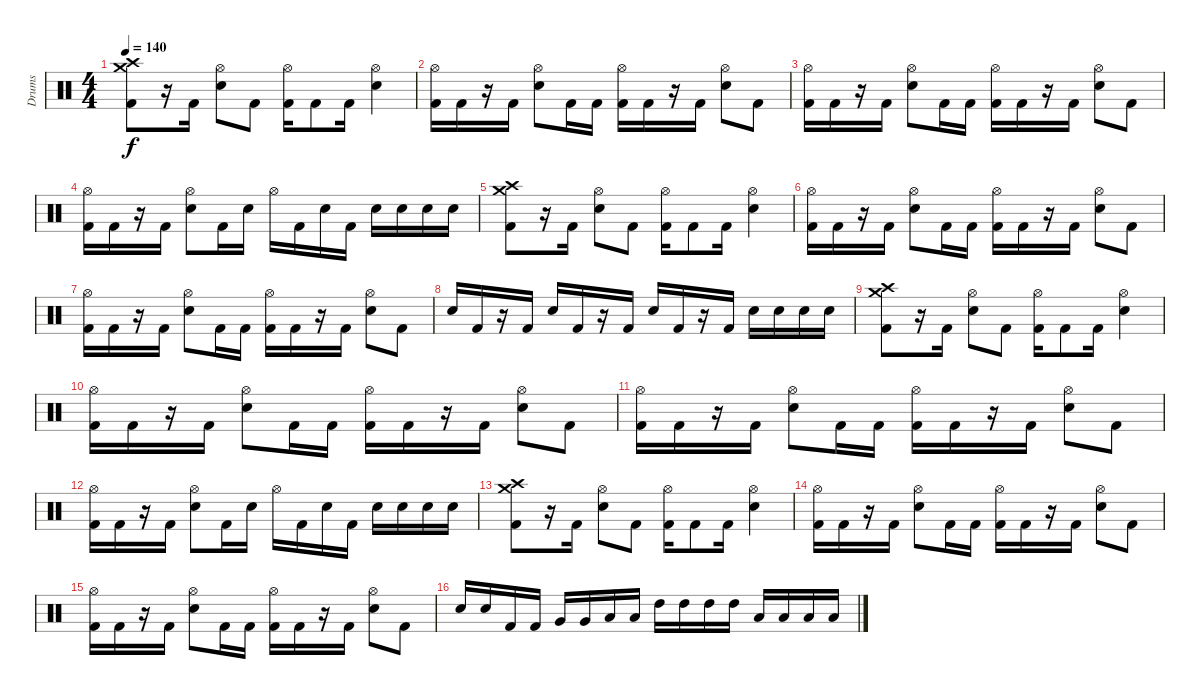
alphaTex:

\track ("Drums" "Drums") {instrument percussion}
\staff {score}
\articulation defaults
\ts (4 4)
\tempo 140
\clef neutral
\ks c
("Crash medium (hit)" "Crash high (hit)" "Kick (hit) 2").8{dy f} r.16 "Kick (hit) 2".16 ("Hi-Hat (open)" "Snare (hit) 2").8 "Kick (hit) 2".8 ("Hi-Hat (open)" "Kick (hit) 2").16 "Kick (hit) 2".8 "Kick (hit) 2".16 ("Hi-Hat (open)" "Snare (hit) 2").4 |
("Hi-Hat (open)" "Kick (hit) 2").16 "Kick (hit) 2".16 r.16 "Kick (hit) 2".16 ("Hi-Hat (open)" "Snare (hit) 2").8 "Kick (hit) 2".16 "Kick (hit) 2".16 ("Hi-Hat (open)" "Kick (hit) 2").16 "Kick (hit) 2".16 r.16 "Kick (hit) 2".16 ("Hi-Hat (open)" "Snare (hit) 2").8 "Kick (hit) 2".8 |
("Hi-Hat (open)" "Kick (hit) 2").16 "Kick (hit) 2".16 r.16 "Kick (hit) 2".16 ("Hi-Hat (open)" "Snare (hit) 2").8 "Kick (hit) 2".16 "Kick (hit) 2".16 ("Hi-Hat (open)" "Kick (hit) 2").16 "Kick (hit) 2".16 r.16 "Kick (hit) 2".16 ("Hi-Hat (open)" "Snare (hit) 2").8 "Kick (hit) 2".8 |
("Hi-Hat (open)" "Kick (hit) 2").16 "Kick (hit) 2".16 r.16 "Kick (hit) 2".16 ("Hi-Hat (open)" "Snare (hit) 2").8 "Kick (hit) 2".16 "Snare (hit) 2".16 "Hi-Hat (open)".16 "Kick (hit) 2".16 "Snare (hit) 2".16 "Kick (hit) 2".16 "Snare (hit) 2".16 "Snare (hit) 2".16 "Snare (hit) 2".16 "Snare (hit) 2".16 |
("Crash medium (hit)" "Crash high (hit)" "Kick (hit) 2").8 r.16 "Kick (hit) 2".16 ("Hi-Hat (open)" "Snare (hit) 2").8 "Kick (hit) 2".8 ("Hi-Hat (open)" "Kick (hit) 2").16 "Kick (hit) 2".8 "Kick (hit) 2".16 ("Hi-Hat (open)" "Snare (hit) 2").4 |
("Hi-Hat (open)" "Kick (hit) 2").16 "Kick (hit) 2".16 r.16 "Kick (hit) 2".16 ("Hi-Hat (open)" "Snare (hit) 2").8 "Kick (hit) 2".16 "Kick (hit) 2".16 ("Hi-Hat (open)" "Kick (hit) 2").16 "Kick (hit) 2".16 r.16 "Kick (hit) 2".16 ("Hi-Hat (open)" "Snare (hit) 2").8 "Kick (hit) 2".8 |
("Hi-Hat (open)" "Kick (hit) 2").16 "Kick (hit) 2".16 r.16 "Kick (hit) 2".16 ("Hi-Hat (open)" "Snare (hit) 2").8 "Kick (hit) 2".16 "Kick (hit) 2".16 ("Hi-Hat (open)" "Kick (hit) 2").16 "Kick (hit) 2".16 r.16 "Kick (hit) 2".16 ("Hi-Hat (open)" "Snare (hit) 2").8 "Kick (hit) 2".8 |
"Snare (hit) 2".16 "Kick (hit) 2".16 r.16 "Kick (hit) 2".16 "Snare (hit) 2".16 "Kick (hit) 2".16 r.16 "Kick (hit) 2".16 "Snare (hit) 2".16 "Kick (hit) 2".16 r.16 "Kick (hit) 2".16 "Snare (hit) 2".16 "Snare (hit) 2".16 "Snare (hit) 2".16 "Snare (hit) 2".16 |
("Crash medium (hit)" "Crash high (hit)" "Kick (hit) 2").8 r.16 "Kick (hit) 2".16 ("Hi-Hat (open)" "Snare (hit) 2").8 "Kick (hit) 2".8 ("Hi-Hat (open)" "Kick (hit) 2").16 "Kick (hit) 2".8 "Kick (hit) 2".16 ("Hi-Hat (open)" "Snare (hit) 2").4 |
("Hi-Hat (open)" "Kick (hit) 2").16 "Kick (hit) 2".16 r.16 "Kick (hit) 2".16 ("Hi-Hat (open)" "Snare (hit) 2").8 "Kick (hit) 2".16 "Kick (hit) 2".16 ("Hi-Hat (open)" "Kick (hit) 2").16 "Kick (hit) 2".16 r.16 "Kick (hit) 2".16 ("Hi-Hat (open)" "Snare (hit) 2").8 "Kick (hit) 2".8 |
("Hi-Hat (open)" "Kick (hit) 2").16 "Kick (hit) 2".16 r.16 "Kick (hit) 2".16 ("Hi-Hat (open)" "Snare (hit) 2").8 "Kick (hit) 2".16 "Kick (hit) 2".16 ("Hi-Hat (open)" "Kick (hit) 2").16 "Kick (hit) 2".16 r.16 "Kick (hit) 2".16 ("Hi-Hat (open)" "Snare (hit) 2").8 "Kick (hit) 2".8 |
("Hi-Hat (open)" "Kick (hit) 2").16 "Kick (hit) 2".16 r.16 "Kick (hit) 2".16 ("Hi-Hat (open)" "Snare (hit) 2").8 "Kick (hit) 2".16 "Snare (hit) 2".16 "Hi-Hat (open)".16 "Kick (hit) 2".16 "Snare (hit) 2".16 "Kick (hit) 2".16 "Snare (hit) 2".16 "Snare (hit) 2".16 "Snare (hit) 2".16 "Snare (hit) 2".16 |
("Crash medium (hit)" "Crash high (hit)" "Kick (hit) 2").8 r.16 "Kick (hit) 2".16 ("Hi-Hat (open)" "Snare (hit) 2").8 "Kick (hit) 2".8 ("Hi-Hat (open)" "Kick (hit) 2").16 "Kick (hit) 2".8 "Kick (hit) 2".16 ("Hi-Hat (open)" "Snare (hit) 2").4 |
("Hi-Hat (open)" "Kick (hit) 2").16 "Kick (hit) 2".16 r.16 "Kick (hit) 2".16 ("Hi-Hat (open)" "Snare (hit) 2").8 "Kick (hit) 2".16 "Kick (hit) 2".16 ("Hi-Hat (open)" "Kick (hit) 2").16 "Kick (hit) 2".16 r.16 "Kick (hit) 2".16 ("Hi-Hat (open)" "Snare (hit) 2").8 "Kick (hit) 2".8 |
("Hi-Hat (open)" "Kick (hit) 2").16 "Kick (hit) 2".16 r.16 "Kick (hit) 2".16 ("Hi-Hat (open)" "Snare (hit) 2").8 "Kick (hit) 2".16 "Kick (hit) 2".16 ("Hi-Hat (open)" "Kick (hit) 2").16 "Kick (hit) 2".16 r.16 "Kick (hit) 2".16 ("Hi-Hat (open)" "Snare (hit) 2").8 "Kick (hit) 2".8 |
"Snare (hit) 2".16 "Snare (hit) 2".16 "Kick (hit) 2".16 "Kick (hit) 2".16 "Very Low Tom (hit)".16 "Very Low Tom (hit)".16 "Low Floor Tom (hit)".16 "Low Floor Tom (hit)".16 "High Tom (hit)".16 "High Tom (hit)".16 "High Tom (hit)".16 "High Tom (hit)".16 "Low Tom (hit)".16 "Low Tom (hit)".16 "Low Tom (hit)".16 "Low Tom (hit)".16
